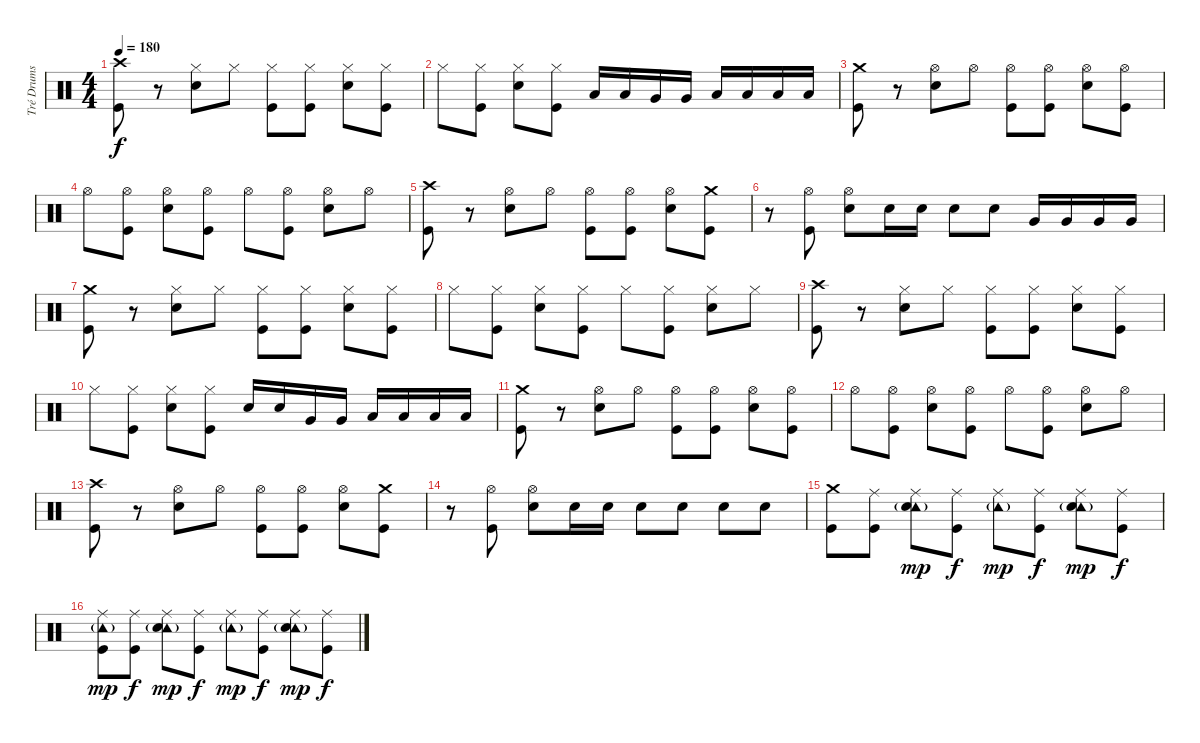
\track ("Tré Drums" "Tré Drums") {instrument percussion}
\staff {score}
\articulation defaults
\ts (4 4)
\tempo 180
\clef neutral
\ks c
("Crash high (hit)" "Kick (hit)").8{dy f} r.8 ("Hi-Hat (closed)" "Electric Snare (hit)").8 "Hi-Hat (closed)".8 ("Hi-Hat (closed)" "Kick (hit)").8 ("Hi-Hat (closed)" "Kick (hit)").8 ("Hi-Hat (closed)" "Electric Snare (hit)").8 ("Hi-Hat (closed)" "Kick (hit)").8 |
"Hi-Hat (closed)".8 ("Hi-Hat (closed)" "Kick (hit)").8 ("Hi-Hat (closed)" "Electric Snare (hit)").8 ("Hi-Hat (closed)" "Kick (hit)").8 "Low Tom (hit)".16 "Low Tom (hit)".16 "Very Low Tom (hit)".16 "Very Low Tom (hit)".16 "Low Tom (hit)".16 "Low Tom (hit)".16 "Low Floor Tom (hit)".16 "Low Floor Tom (hit)".16 |
("Crash medium (hit)" "Kick (hit)").8 r.8 ("Hi-Hat (open)" "Electric Snare (hit)").8 "Hi-Hat (open)".8 ("Hi-Hat (open)" "Kick (hit)").8 ("Hi-Hat (open)" "Kick (hit)").8 ("Hi-Hat (open)" "Electric Snare (hit)").8 ("Hi-Hat (open)" "Kick (hit)").8 |
"Hi-Hat (open)".8 ("Hi-Hat (open)" "Kick (hit)").8 ("Hi-Hat (open)" "Electric Snare (hit)").8 ("Hi-Hat (open)" "Kick (hit)").8 "Hi-Hat (open)".8 ("Hi-Hat (open)" "Kick (hit)").8 ("Hi-Hat (open)" "Electric Snare (hit)").8 "Hi-Hat (open)".8 |
("Crash high (hit)" "Kick (hit)").8 r.8 ("Hi-Hat (open)" "Electric Snare (hit)").8 "Hi-Hat (open)".8 ("Hi-Hat (open)" "Kick (hit)").8 ("Hi-Hat (open)" "Kick (hit)").8 ("Hi-Hat (open)" "Electric Snare (hit)").8 ("Crash medium (hit)" "Kick (hit)").8 |
r.8 ("Hi-Hat (open)" "Kick (hit)").8 ("Hi-Hat (open)" "Electric Snare (hit)").8 "Electric Snare (hit)".16 "Electric Snare (hit)".16 "Electric Snare (hit)".8 "Electric Snare (hit)".8 "Very Low Tom (hit)".16 "Very Low Tom (hit)".16 "Very Low Tom (hit)".16 "Very Low Tom (hit)".16 |
("Crash medium (hit)" "Kick (hit)").8 r.8 ("Hi-Hat (closed)" "Electric Snare (hit)").8 "Hi-Hat (closed)".8 ("Hi-Hat (closed)" "Kick (hit)").8 ("Hi-Hat (closed)" "Kick (hit)").8 ("Hi-Hat (closed)" "Electric Snare (hit)").8 ("Hi-Hat (closed)" "Kick (hit)").8 |
"Hi-Hat (closed)".8 ("Hi-Hat (closed)" "Kick (hit)").8 ("Hi-Hat (closed)" "Electric Snare (hit)").8 ("Hi-Hat (closed)" "Kick (hit)").8 "Hi-Hat (closed)".8 ("Hi-Hat (closed)" "Kick (hit)").8 ("Hi-Hat (closed)" "Electric Snare (hit)").8 "Hi-Hat (closed)".8 |
("Crash high (hit)" "Kick (hit)").8 r.8 ("Hi-Hat (closed)" "Electric Snare (hit)").8 "Hi-Hat (closed)".8 ("Hi-Hat (closed)" "Kick (hit)").8 ("Hi-Hat (closed)" "Kick (hit)").8 ("Hi-Hat (closed)" "Electric Snare (hit)").8 ("Hi-Hat (closed)" "Kick (hit)").8 |
"Hi-Hat (closed)".8 ("Hi-Hat (closed)" "Kick (hit)").8 ("Hi-Hat (closed)" "Electric Snare (hit)").8 ("Hi-Hat (closed)" "Kick (hit)").8 "Electric Snare (hit)".16 "Electric Snare (hit)".16 "Very Low Tom (hit)".16 "Very Low Tom (hit)".16 "Low Tom (hit)".16 "Low Tom (hit)".16 "Low Floor Tom (hit)".16 "Low Floor Tom (hit)".16 |
("Crash medium (hit)" "Kick (hit)").8 r.8 ("Hi-Hat (open)" "Electric Snare (hit)").8 "Hi-Hat (open)".8 ("Hi-Hat (open)" "Kick (hit)").8 ("Hi-Hat (open)" "Kick (hit)").8 ("Hi-Hat (open)" "Electric Snare (hit)").8 ("Hi-Hat (open)" "Kick (hit)").8 |
"Hi-Hat (open)".8 ("Hi-Hat (open)" "Kick (hit)").8 ("Hi-Hat (open)" "Electric Snare (hit)").8 ("Hi-Hat (open)" "Kick (hit)").8 "Hi-Hat (open)".8 ("Hi-Hat (open)" "Kick (hit)").8 ("Hi-Hat (open)" "Electric Snare (hit)").8 "Hi-Hat (open)".8 |
("Crash high (hit)" "Kick (hit)").8 r.8 ("Hi-Hat (open)" "Electric Snare (hit)").8 "Hi-Hat (open)".8 ("Hi-Hat (open)" "Kick (hit)").8 ("Hi-Hat (open)" "Kick (hit)").8 ("Hi-Hat (open)" "Electric Snare (hit)").8 ("Crash medium (hit)" "Kick (hit)").8 |
r.8 ("Hi-Hat (open)" "Kick (hit)").8 ("Hi-Hat (open)" "Electric Snare (hit)").8 "Electric Snare (hit)".16 "Electric Snare (hit)".16 "Electric Snare (hit)".8 "Electric Snare (hit)".8 "Electric Snare (hit)".8 "Electric Snare (hit)".8 |
("Crash medium (hit)" "Kick (hit)").8 ("Ride (middle)" "Kick (hit)").8 ("Tambourine (hit)"{g} "Ride (middle)" "Electric Snare (hit)").8{dy mp} ("Ride (middle)" "Kick (hit)").8{dy f} ("Tambourine (hit)"{g} "Ride (middle)").8{dy mp} ("Ride (middle)" "Kick (hit)").8{dy f} ("Tambourine (hit)"{g} "Ride (middle)" "Electric Snare (hit)").8{dy mp} ("Ride (middle)" "Kick (hit)").8{dy f} |
("Tambourine (hit)"{g} "Ride (middle)" "Kick (hit)").8{dy mp} ("Ride (middle)" "Kick (hit)").8{dy f} ("Tambourine (hit)"{g} "Ride (middle)" "Electric Snare (hit)").8{dy mp} ("Ride (middle)" "Kick (hit)").8{dy f} ("Tambourine (hit)"{g} "Ride (middle)").8{dy mp} ("Ride (middle)" "Kick (hit)").8{dy f} ("Tambourine (hit)"{g} "Ride (middle)" "Electric Snare (hit)").8{dy mp} ("Ride (middle)" "Kick (hit)").8{dy f}
